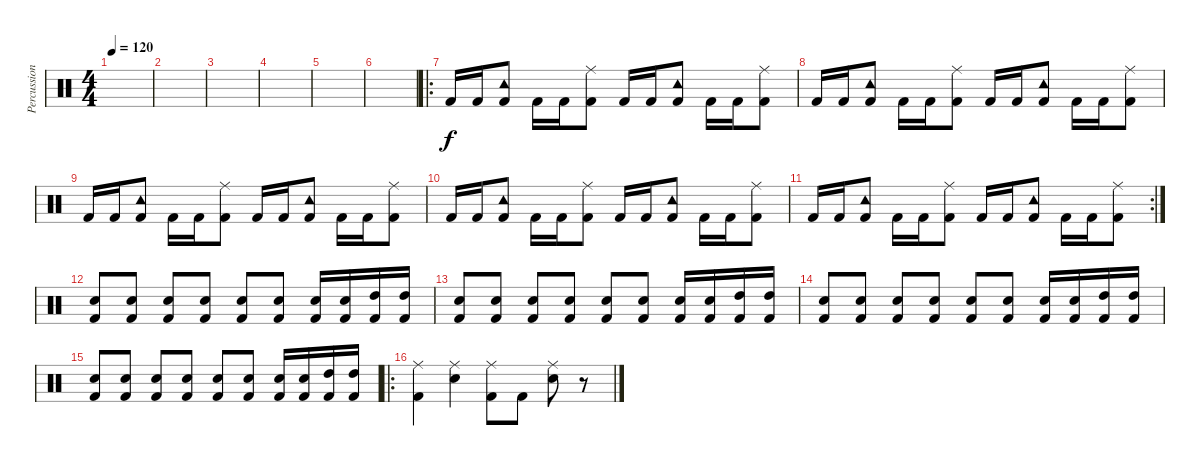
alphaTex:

\track ("Percussion" "Percussion") {instrument percussion}
\staff {score}
\articulation defaults
\ts (4 4)
\tempo 120
\clef neutral
\ks c
|
|
|
|
|
|
\ro "Kick (hit) 2".16 "Kick (hit) 2".16
("Tambourine (hit)" "Kick (hit) 2").8 "Kick (hit) 2".16 "Kick (hit) 2".16 ("Ride (middle)" "Kick (hit) 2").8 "Kick (hit) 2".16 "Kick (hit) 2".16 ("Tambourine (hit)" "Kick (hit) 2").8 "Kick (hit) 2".16 "Kick (hit) 2".16 ("Ride (middle)" "Kick (hit) 2").8 |
"Kick (hit) 2".16 "Kick (hit) 2".16 ("Tambourine (hit)" "Kick (hit) 2").8 "Kick (hit) 2".16 "Kick (hit) 2".16 ("Ride (middle)" "Kick (hit) 2").8 "Kick (hit) 2".16 "Kick (hit) 2".16 ("Tambourine (hit)" "Kick (hit) 2").8 "Kick (hit) 2".16 "Kick (hit) 2".16 ("Ride (middle)" "Kick (hit) 2").8 |
"Kick (hit) 2".16 "Kick (hit) 2".16 ("Tambourine (hit)" "Kick (hit) 2").8 "Kick (hit) 2".16 "Kick (hit) 2".16 ("Ride (middle)" "Kick (hit) 2").8 "Kick (hit) 2".16 "Kick (hit) 2".16 ("Tambourine (hit)" "Kick (hit) 2").8 "Kick (hit) 2".16 "Kick (hit) 2".16 ("Ride (middle)" "Kick (hit) 2").8 |
"Kick (hit) 2".16 "Kick (hit) 2".16 ("Tambourine (hit)" "Kick (hit) 2").8 "Kick (hit) 2".16 "Kick (hit) 2".16 ("Ride (middle)" "Kick (hit) 2").8 "Kick (hit) 2".16 "Kick (hit) 2".16 ("Tambourine (hit)" "Kick (hit) 2").8 "Kick (hit) 2".16 "Kick (hit) 2".16 ("Ride (middle)" "Kick (hit) 2").8 |
\rc 2 "Kick (hit) 2".16 "Kick (hit) 2".16
("Tambourine (hit)" "Kick (hit) 2").8 "Kick (hit) 2".16 "Kick (hit) 2".16 ("Ride (middle)" "Kick (hit) 2").8 "Kick (hit) 2".16 "Kick (hit) 2".16 ("Tambourine (hit)" "Kick (hit) 2").8 "Kick (hit) 2".16 "Kick (hit) 2".16 ("Ride (middle)" "Kick (hit) 2").8 |
("Snare (hit) 2" "Kick (hit) 2").8 ("Snare (hit) 2" "Kick (hit) 2").8 ("Snare (hit) 2" "Kick (hit) 2").8 ("Snare (hit) 2" "Kick (hit) 2").8 ("Snare (hit) 2" "Kick (hit) 2").8 ("Snare (hit) 2" "Kick (hit) 2").8 ("Snare (hit) 2" "Kick (hit) 2").16 ("Snare (hit) 2" "Kick (hit) 2").16 ("High Tom (hit)" "Kick (hit) 2").16 ("High Tom (hit)" "Kick (hit) 2").16 |
("Snare (hit) 2" "Kick (hit) 2").8 ("Snare (hit) 2" "Kick (hit) 2").8 ("Snare (hit) 2" "Kick (hit) 2").8 ("Snare (hit) 2" "Kick (hit) 2").8 ("Snare (hit) 2" "Kick (hit) 2").8 ("Snare (hit) 2" "Kick (hit) 2").8 ("Snare (hit) 2" "Kick (hit) 2").16 ("Snare (hit) 2" "Kick (hit) 2").16 ("High Tom (hit)" "Kick (hit) 2").16 ("High Tom (hit)" "Kick (hit) 2").16 |
("Snare (hit) 2" "Kick (hit) 2").8 ("Snare (hit) 2" "Kick (hit) 2").8 ("Snare (hit) 2" "Kick (hit) 2").8 ("Snare (hit) 2" "Kick (hit) 2").8 ("Snare (hit) 2" "Kick (hit) 2").8 ("Snare (hit) 2" "Kick (hit) 2").8 ("Snare (hit) 2" "Kick (hit) 2").16 ("Snare (hit) 2" "Kick (hit) 2").16 ("High Tom (hit)" "Kick (hit) 2").16 ("High Tom (hit)" "Kick (hit) 2").16 |
("Snare (hit) 2" "Kick (hit) 2").8 ("Snare (hit) 2" "Kick (hit) 2").8 ("Snare (hit) 2" "Kick (hit) 2").8 ("Snare (hit) 2" "Kick (hit) 2").8 ("Snare (hit) 2" "Kick (hit) 2").8 ("Snare (hit) 2" "Kick (hit) 2").8 ("Snare (hit) 2" "Kick (hit) 2").16 ("Snare (hit) 2" "Kick (hit) 2").16 ("High Tom (hit)" "Kick (hit) 2").16 ("High Tom (hit)" "Kick (hit) 2").16 |
\ro
("Ride (middle)" "Kick (hit) 2").4 ("Ride (middle)" "Snare (hit) 2").4 ("Ride (middle)" "Kick (hit) 2").8 "Kick (hit) 2".8 ("Ride (middle)" "Snare (hit) 2").8 r.8
